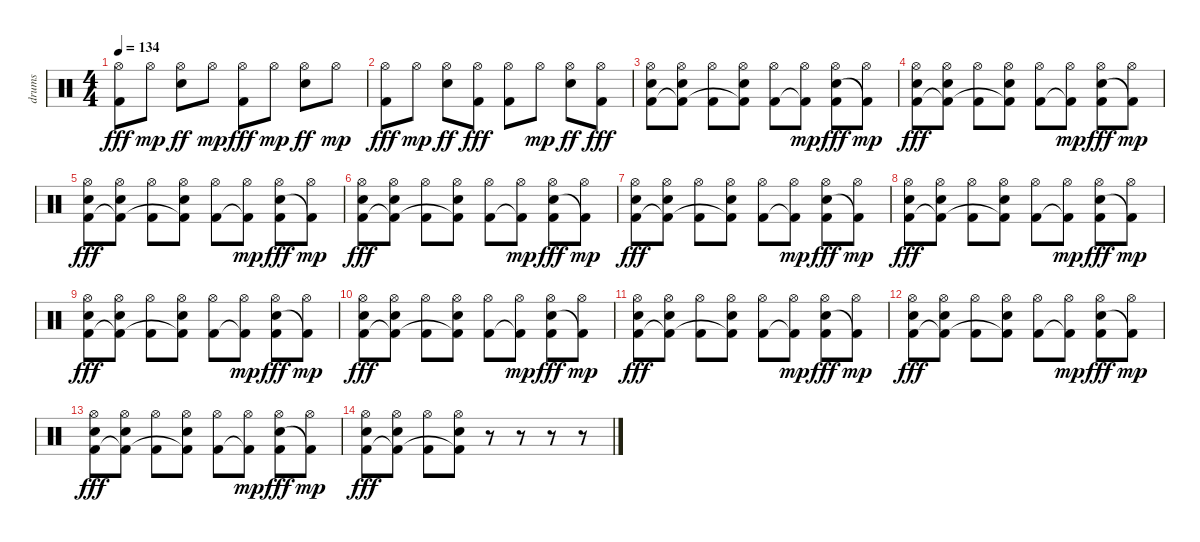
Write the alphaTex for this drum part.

\track ("drums" "drums") {instrument percussion}
\staff {score}
\articulation defaults
\ts (4 4)
\tempo 134
\clef neutral
\ks c
("Hi-Hat (open)" "Kick (hit) 2").8{dy fff} "Hi-Hat (open)".8{dy mp} ("Hi-Hat (open)" "Electric Snare (hit)").8{dy ff} "Hi-Hat (open)".8{dy mp} ("Hi-Hat (open)" "Kick (hit) 2").8{dy fff} "Hi-Hat (open)".8{dy mp} ("Hi-Hat (open)" "Electric Snare (hit)").8{dy ff} "Hi-Hat (open)".8{dy mp} |
("Hi-Hat (open)" "Kick (hit) 2").8{dy fff} "Hi-Hat (open)".8{dy mp} ("Hi-Hat (open)" "Electric Snare (hit)").8{dy ff} ("Hi-Hat (open)" "Kick (hit) 2").8{dy fff} ("Hi-Hat (open)" "Kick (hit) 2").8 "Hi-Hat (open)".8{dy mp} ("Hi-Hat (open)" "Electric Snare (hit)").8{dy ff} ("Hi-Hat (open)" "Kick (hit) 2").8{dy fff} |
("Hi-Hat (open)" "Electric Snare (hit)" "Kick (hit) 2").8 ("Hi-Hat (open)" "Electric Snare (hit)" "Kick (hit) 2"{t}).8 ("Hi-Hat (open)" "Kick (hit) 2").8 ("Hi-Hat (open)" "Electric Snare (hit)" "Kick (hit) 2"{t}).8 ("Hi-Hat (open)" "Kick (hit) 2").8 ("Hi-Hat (open)" "Kick (hit) 2"{t}).8{dy mp} ("Hi-Hat (open)" "Electric Snare (hit)" "Kick (hit) 2").8{dy fff} ("Hi-Hat (open)" "Kick (hit) 2"{t}).8{dy mp} |
("Hi-Hat (open)" "Electric Snare (hit)" "Kick (hit) 2").8{dy fff} ("Hi-Hat (open)" "Electric Snare (hit)" "Kick (hit) 2"{t}).8 ("Hi-Hat (open)" "Kick (hit) 2").8 ("Hi-Hat (open)" "Electric Snare (hit)" "Kick (hit) 2"{t}).8 ("Hi-Hat (open)" "Kick (hit) 2").8 ("Hi-Hat (open)" "Kick (hit) 2"{t}).8{dy mp} ("Hi-Hat (open)" "Electric Snare (hit)" "Kick (hit) 2").8{dy fff} ("Hi-Hat (open)" "Kick (hit) 2"{t}).8{dy mp} |
("Hi-Hat (open)" "Electric Snare (hit)" "Kick (hit) 2").8{dy fff} ("Hi-Hat (open)" "Electric Snare (hit)" "Kick (hit) 2"{t}).8 ("Hi-Hat (open)" "Kick (hit) 2").8 ("Hi-Hat (open)" "Electric Snare (hit)" "Kick (hit) 2"{t}).8 ("Hi-Hat (open)" "Kick (hit) 2").8 ("Hi-Hat (open)" "Kick (hit) 2"{t}).8{dy mp} ("Hi-Hat (open)" "Electric Snare (hit)" "Kick (hit) 2").8{dy fff} ("Hi-Hat (open)" "Kick (hit) 2"{t}).8{dy mp} |
("Hi-Hat (open)" "Electric Snare (hit)" "Kick (hit) 2").8{dy fff} ("Hi-Hat (open)" "Electric Snare (hit)" "Kick (hit) 2"{t}).8 ("Hi-Hat (open)" "Kick (hit) 2").8 ("Hi-Hat (open)" "Electric Snare (hit)" "Kick (hit) 2"{t}).8 ("Hi-Hat (open)" "Kick (hit) 2").8 ("Hi-Hat (open)" "Kick (hit) 2"{t}).8{dy mp} ("Hi-Hat (open)" "Electric Snare (hit)" "Kick (hit) 2").8{dy fff} ("Hi-Hat (open)" "Kick (hit) 2"{t}).8{dy mp} |
("Hi-Hat (open)" "Electric Snare (hit)" "Kick (hit) 2").8{dy fff} ("Hi-Hat (open)" "Electric Snare (hit)" "Kick (hit) 2"{t}).8 ("Hi-Hat (open)" "Kick (hit) 2").8 ("Hi-Hat (open)" "Electric Snare (hit)" "Kick (hit) 2"{t}).8 ("Hi-Hat (open)" "Kick (hit) 2").8 ("Hi-Hat (open)" "Kick (hit) 2"{t}).8{dy mp} ("Hi-Hat (open)" "Electric Snare (hit)" "Kick (hit) 2").8{dy fff} ("Hi-Hat (open)" "Kick (hit) 2"{t}).8{dy mp} |
("Hi-Hat (open)" "Electric Snare (hit)" "Kick (hit) 2").8{dy fff} ("Hi-Hat (open)" "Electric Snare (hit)" "Kick (hit) 2"{t}).8 ("Hi-Hat (open)" "Kick (hit) 2").8 ("Hi-Hat (open)" "Electric Snare (hit)" "Kick (hit) 2"{t}).8 ("Hi-Hat (open)" "Kick (hit) 2").8 ("Hi-Hat (open)" "Kick (hit) 2"{t}).8{dy mp} ("Hi-Hat (open)" "Electric Snare (hit)" "Kick (hit) 2").8{dy fff} ("Hi-Hat (open)" "Kick (hit) 2"{t}).8{dy mp} |
("Hi-Hat (open)" "Electric Snare (hit)" "Kick (hit) 2").8{dy fff} ("Hi-Hat (open)" "Electric Snare (hit)" "Kick (hit) 2"{t}).8 ("Hi-Hat (open)" "Kick (hit) 2").8 ("Hi-Hat (open)" "Electric Snare (hit)" "Kick (hit) 2"{t}).8 ("Hi-Hat (open)" "Kick (hit) 2").8 ("Hi-Hat (open)" "Kick (hit) 2"{t}).8{dy mp} ("Hi-Hat (open)" "Electric Snare (hit)" "Kick (hit) 2").8{dy fff} ("Hi-Hat (open)" "Kick (hit) 2"{t}).8{dy mp} |
("Hi-Hat (open)" "Electric Snare (hit)" "Kick (hit) 2").8{dy fff volume 1} ("Hi-Hat (open)" "Electric Snare (hit)" "Kick (hit) 2"{t}).8 ("Hi-Hat (open)" "Kick (hit) 2").8 ("Hi-Hat (open)" "Electric Snare (hit)" "Kick (hit) 2"{t}).8 ("Hi-Hat (open)" "Kick (hit) 2").8 ("Hi-Hat (open)" "Kick (hit) 2"{t}).8{dy mp} ("Hi-Hat (open)" "Electric Snare (hit)" "Kick (hit) 2").8{dy fff} ("Hi-Hat (open)" "Kick (hit) 2"{t}).8{dy mp} |
("Hi-Hat (open)" "Electric Snare (hit)" "Kick (hit) 2").8{dy fff} ("Hi-Hat (open)" "Electric Snare (hit)" "Kick (hit) 2"{t}).8 ("Hi-Hat (open)" "Kick (hit) 2").8 ("Hi-Hat (open)" "Electric Snare (hit)" "Kick (hit) 2"{t}).8 ("Hi-Hat (open)" "Kick (hit) 2").8 ("Hi-Hat (open)" "Kick (hit) 2"{t}).8{dy mp} ("Hi-Hat (open)" "Electric Snare (hit)" "Kick (hit) 2").8{dy fff} ("Hi-Hat (open)" "Kick (hit) 2"{t}).8{dy mp} |
("Hi-Hat (open)" "Electric Snare (hit)" "Kick (hit) 2").8{dy fff} ("Hi-Hat (open)" "Electric Snare (hit)" "Kick (hit) 2"{t}).8 ("Hi-Hat (open)" "Kick (hit) 2").8 ("Hi-Hat (open)" "Electric Snare (hit)" "Kick (hit) 2"{t}).8 ("Hi-Hat (open)" "Kick (hit) 2").8 ("Hi-Hat (open)" "Kick (hit) 2"{t}).8{dy mp} ("Hi-Hat (open)" "Electric Snare (hit)" "Kick (hit) 2").8{dy fff} ("Hi-Hat (open)" "Kick (hit) 2"{t}).8{dy mp} |
("Hi-Hat (open)" "Electric Snare (hit)" "Kick (hit) 2").8{dy fff} ("Hi-Hat (open)" "Electric Snare (hit)" "Kick (hit) 2"{t}).8 ("Hi-Hat (open)" "Kick (hit) 2").8 ("Hi-Hat (open)" "Electric Snare (hit)" "Kick (hit) 2"{t}).8 ("Hi-Hat (open)" "Kick (hit) 2").8 ("Hi-Hat (open)" "Kick (hit) 2"{t}).8{dy mp} ("Hi-Hat (open)" "Electric Snare (hit)" "Kick (hit) 2").8{dy fff} ("Hi-Hat (open)" "Kick (hit) 2"{t}).8{dy mp} |
("Hi-Hat (open)" "Electric Snare (hit)" "Kick (hit) 2").8{dy fff volume 0} ("Hi-Hat (open)" "Electric Snare (hit)" "Kick (hit) 2"{t}).8 ("Hi-Hat (open)" "Kick (hit) 2").8 ("Hi-Hat (open)" "Electric Snare (hit)" "Kick (hit) 2"{t}).8 r.8 r.8 r.8 r.8
